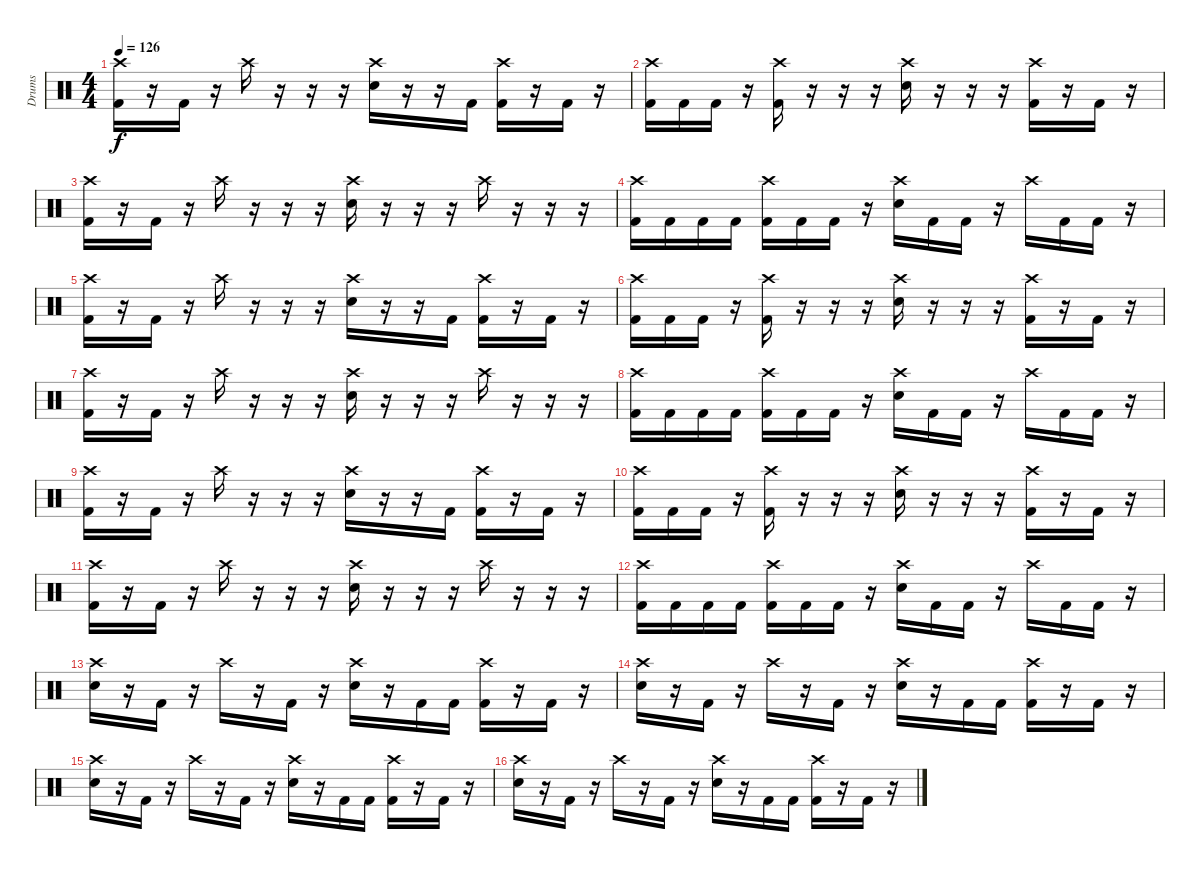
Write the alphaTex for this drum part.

\track ("Drums" "Drums") {instrument percussion}
\staff {score}
\articulation defaults
\ts (4 4)
\tempo 126
\clef neutral
\ks c
("Crash high (hit)" "Kick (hit) 2").16{dy f} r.16 "Kick (hit) 2".16 r.16 "Crash high (hit)".16 r.16 r.16 r.16 ("Crash high (hit)" "Electric Snare (hit)").16 r.16 r.16 "Kick (hit) 2".16 ("Crash high (hit)" "Kick (hit) 2").16 r.16 "Kick (hit) 2".16 r.16 |
("Crash high (hit)" "Kick (hit) 2").16 "Kick (hit) 2".16 "Kick (hit) 2".16 r.16 ("Crash high (hit)" "Kick (hit) 2").16 r.16 r.16 r.16 ("Crash high (hit)" "Electric Snare (hit)").16 r.16 r.16 r.16 ("Crash high (hit)" "Kick (hit) 2").16 r.16 "Kick (hit) 2".16 r.16 |
("Crash high (hit)" "Kick (hit) 2").16 r.16 "Kick (hit) 2".16 r.16 "Crash high (hit)".16 r.16 r.16 r.16 ("Crash high (hit)" "Electric Snare (hit)").16 r.16 r.16 r.16 "Crash high (hit)".16 r.16 r.16 r.16 |
("Crash high (hit)" "Kick (hit) 2").16 "Kick (hit) 2".16 "Kick (hit) 2".16 "Kick (hit) 2".16 ("Crash high (hit)" "Kick (hit) 2").16 "Kick (hit) 2".16 "Kick (hit) 2".16 r.16 ("Crash high (hit)" "Electric Snare (hit)").16 "Kick (hit) 2".16 "Kick (hit) 2".16 r.16 "Crash high (hit)".16 "Kick (hit) 2".16 "Kick (hit) 2".16 r.16 |
("Crash high (hit)" "Kick (hit) 2").16 r.16 "Kick (hit) 2".16 r.16 "Crash high (hit)".16 r.16 r.16 r.16 ("Crash high (hit)" "Electric Snare (hit)").16 r.16 r.16 "Kick (hit) 2".16 ("Crash high (hit)" "Kick (hit) 2").16 r.16 "Kick (hit) 2".16 r.16 |
("Crash high (hit)" "Kick (hit) 2").16 "Kick (hit) 2".16 "Kick (hit) 2".16 r.16 ("Crash high (hit)" "Kick (hit) 2").16 r.16 r.16 r.16 ("Crash high (hit)" "Electric Snare (hit)").16 r.16 r.16 r.16 ("Crash high (hit)" "Kick (hit) 2").16 r.16 "Kick (hit) 2".16 r.16 |
("Crash high (hit)" "Kick (hit) 2").16 r.16 "Kick (hit) 2".16 r.16 "Crash high (hit)".16 r.16 r.16 r.16 ("Crash high (hit)" "Electric Snare (hit)").16 r.16 r.16 r.16 "Crash high (hit)".16 r.16 r.16 r.16 |
("Crash high (hit)" "Kick (hit) 2").16 "Kick (hit) 2".16 "Kick (hit) 2".16 "Kick (hit) 2".16 ("Crash high (hit)" "Kick (hit) 2").16 "Kick (hit) 2".16 "Kick (hit) 2".16 r.16 ("Crash high (hit)" "Electric Snare (hit)").16 "Kick (hit) 2".16 "Kick (hit) 2".16 r.16 "Crash high (hit)".16 "Kick (hit) 2".16 "Kick (hit) 2".16 r.16 |
("Crash high (hit)" "Kick (hit) 2").16 r.16 "Kick (hit) 2".16 r.16 "Crash high (hit)".16 r.16 r.16 r.16 ("Crash high (hit)" "Electric Snare (hit)").16 r.16 r.16 "Kick (hit) 2".16 ("Crash high (hit)" "Kick (hit) 2").16 r.16 "Kick (hit) 2".16 r.16 |
("Crash high (hit)" "Kick (hit) 2").16 "Kick (hit) 2".16 "Kick (hit) 2".16 r.16 ("Crash high (hit)" "Kick (hit) 2").16 r.16 r.16 r.16 ("Crash high (hit)" "Electric Snare (hit)").16 r.16 r.16 r.16 ("Crash high (hit)" "Kick (hit) 2").16 r.16 "Kick (hit) 2".16 r.16 |
("Crash high (hit)" "Kick (hit) 2").16 r.16 "Kick (hit) 2".16 r.16 "Crash high (hit)".16 r.16 r.16 r.16 ("Crash high (hit)" "Electric Snare (hit)").16 r.16 r.16 r.16 "Crash high (hit)".16 r.16 r.16 r.16 |
("Crash high (hit)" "Kick (hit) 2").16 "Kick (hit) 2".16 "Kick (hit) 2".16 "Kick (hit) 2".16 ("Crash high (hit)" "Kick (hit) 2").16 "Kick (hit) 2".16 "Kick (hit) 2".16 r.16 ("Crash high (hit)" "Electric Snare (hit)").16 "Kick (hit) 2".16 "Kick (hit) 2".16 r.16 "Crash high (hit)".16 "Kick (hit) 2".16 "Kick (hit) 2".16 r.16 |
("Crash high (hit)" "Electric Snare (hit)").16 r.16 "Kick (hit) 2".16 r.16 "Crash high (hit)".16 r.16 "Kick (hit) 2".16 r.16 ("Crash high (hit)" "Electric Snare (hit)").16 r.16 "Kick (hit) 2".16 "Kick (hit) 2".16 ("Crash high (hit)" "Kick (hit) 2").16 r.16 "Kick (hit) 2".16 r.16 |
("Crash high (hit)" "Electric Snare (hit)").16 r.16 "Kick (hit) 2".16 r.16 "Crash high (hit)".16 r.16 "Kick (hit) 2".16 r.16 ("Crash high (hit)" "Electric Snare (hit)").16 r.16 "Kick (hit) 2".16 "Kick (hit) 2".16 ("Crash high (hit)" "Kick (hit) 2").16 r.16 "Kick (hit) 2".16 r.16 |
("Crash high (hit)" "Electric Snare (hit)").16 r.16 "Kick (hit) 2".16 r.16 "Crash high (hit)".16 r.16 "Kick (hit) 2".16 r.16 ("Crash high (hit)" "Electric Snare (hit)").16 r.16 "Kick (hit) 2".16 "Kick (hit) 2".16 ("Crash high (hit)" "Kick (hit) 2").16 r.16 "Kick (hit) 2".16 r.16 |
("Crash high (hit)" "Electric Snare (hit)").16 r.16 "Kick (hit) 2".16 r.16 "Crash high (hit)".16 r.16 "Kick (hit) 2".16 r.16 ("Crash high (hit)" "Electric Snare (hit)").16 r.16 "Kick (hit) 2".16 "Kick (hit) 2".16 ("Crash high (hit)" "Kick (hit) 2").16 r.16 "Kick (hit) 2".16 r.16
